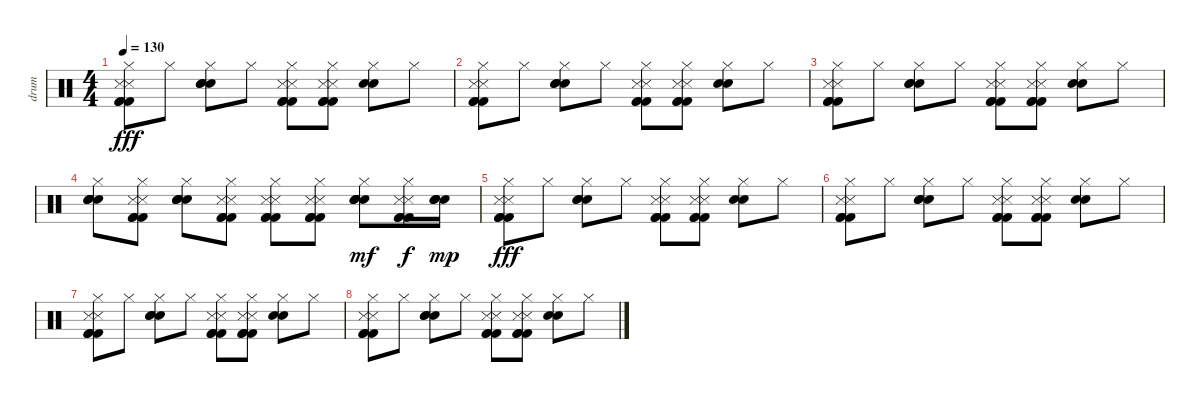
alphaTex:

\track ("drum" "drum") {instrument percussion}
\staff {score}
\articulation defaults
\ts (4 4)
\tempo 130
\clef neutral
\ks c
("Metronome (hit)" "Metronome (hit)" "Kick (hit) 2" "Kick (hit) 2" "Kick (hit) 2" "Hi-Hat (closed)").8{dy fff} "Hi-Hat (closed)".8 ("Electric Snare (hit)" "Electric Snare (hit)" "Electric Snare (hit)" "Hi-Hat (closed)").8 "Hi-Hat (closed)".8 ("Metronome (hit)" "Metronome (hit)" "Kick (hit) 2" "Kick (hit) 2" "Kick (hit) 2" "Hi-Hat (closed)").8 ("Metronome (hit)" "Metronome (hit)" "Kick (hit) 2" "Kick (hit) 2" "Kick (hit) 2" "Hi-Hat (closed)").8 ("Electric Snare (hit)" "Electric Snare (hit)" "Hi-Hat (closed)").8 "Hi-Hat (closed)".8 |
("Metronome (hit)" "Metronome (hit)" "Kick (hit) 2" "Kick (hit) 2" "Kick (hit) 2" "Hi-Hat (closed)").8 "Hi-Hat (closed)".8 ("Electric Snare (hit)" "Electric Snare (hit)" "Electric Snare (hit)" "Hi-Hat (closed)").8 "Hi-Hat (closed)".8 ("Metronome (hit)" "Metronome (hit)" "Kick (hit) 2" "Kick (hit) 2" "Kick (hit) 2" "Hi-Hat (closed)").8 ("Metronome (hit)" "Metronome (hit)" "Kick (hit) 2" "Kick (hit) 2" "Kick (hit) 2" "Hi-Hat (closed)").8 ("Electric Snare (hit)" "Electric Snare (hit)" "Hi-Hat (closed)").8 "Hi-Hat (closed)".8 |
("Metronome (hit)" "Metronome (hit)" "Kick (hit) 2" "Kick (hit) 2" "Kick (hit) 2" "Hi-Hat (closed)").8 "Hi-Hat (closed)".8 ("Electric Snare (hit)" "Electric Snare (hit)" "Electric Snare (hit)" "Hi-Hat (closed)").8 "Hi-Hat (closed)".8 ("Metronome (hit)" "Metronome (hit)" "Kick (hit) 2" "Kick (hit) 2" "Kick (hit) 2" "Hi-Hat (closed)").8 ("Metronome (hit)" "Metronome (hit)" "Kick (hit) 2" "Kick (hit) 2" "Kick (hit) 2" "Hi-Hat (closed)").8 ("Electric Snare (hit)" "Electric Snare (hit)" "Hi-Hat (closed)").8 "Hi-Hat (closed)".8 |
("Hand Clap (hit)" "Snare (hit) 2" "Snare (hit) 2" "Snare (hit) 2" "Hi-Hat (closed)").8 ("Metronome (hit)" "Metronome (hit)" "Kick (hit) 2" "Kick (hit) 2" "Kick (hit) 2" "Hi-Hat (closed)").8{txt ""} ("Hand Clap (hit)" "Snare (hit) 2" "Snare (hit) 2" "Snare (hit) 2" "Hi-Hat (closed)").8 ("Metronome (hit)" "Metronome (hit)" "Kick (hit) 2" "Kick (hit) 2" "Kick (hit) 2" "Hi-Hat (closed)").8 ("Metronome (hit)" "Metronome (hit)" "Kick (hit) 2" "Kick (hit) 2" "Kick (hit) 2" "Hi-Hat (closed)").8 ("Metronome (hit)" "Metronome (hit)" "Kick (hit) 2" "Kick (hit) 2" "Kick (hit) 2" "Hi-Hat (closed)").8 ("Hand Clap (hit)" "Snare (hit) 2" "Snare (hit) 2" "Snare (hit) 2" "Hi-Hat (closed)").8{dy mf} ("Metronome (hit)" "Metronome (hit)" "Kick (hit) 2" "Kick (hit) 2" "Kick (hit) 2" "Hi-Hat (closed)").16{dy f} ("Hand Clap (hit)" "Snare (hit) 2" "Snare (hit) 2" "Snare (hit) 2").16{dy mp} |
("Metronome (hit)" "Metronome (hit)" "Kick (hit) 2" "Kick (hit) 2" "Kick (hit) 2" "Hi-Hat (closed)").8{dy fff} "Hi-Hat (closed)".8 ("Electric Snare (hit)" "Electric Snare (hit)" "Electric Snare (hit)" "Hi-Hat (closed)").8 "Hi-Hat (closed)".8 ("Metronome (hit)" "Metronome (hit)" "Kick (hit) 2" "Kick (hit) 2" "Kick (hit) 2" "Hi-Hat (closed)").8 ("Metronome (hit)" "Metronome (hit)" "Kick (hit) 2" "Kick (hit) 2" "Kick (hit) 2" "Hi-Hat (closed)").8 ("Electric Snare (hit)" "Electric Snare (hit)" "Hi-Hat (closed)").8 "Hi-Hat (closed)".8 |
("Metronome (hit)" "Metronome (hit)" "Kick (hit) 2" "Kick (hit) 2" "Kick (hit) 2" "Hi-Hat (closed)").8 "Hi-Hat (closed)".8 ("Electric Snare (hit)" "Electric Snare (hit)" "Electric Snare (hit)" "Hi-Hat (closed)").8 "Hi-Hat (closed)".8 ("Metronome (hit)" "Metronome (hit)" "Kick (hit) 2" "Kick (hit) 2" "Kick (hit) 2" "Hi-Hat (closed)").8 ("Metronome (hit)" "Metronome (hit)" "Kick (hit) 2" "Kick (hit) 2" "Kick (hit) 2" "Hi-Hat (closed)").8 ("Electric Snare (hit)" "Electric Snare (hit)" "Hi-Hat (closed)").8 "Hi-Hat (closed)".8 |
("Metronome (hit)" "Metronome (hit)" "Kick (hit) 2" "Kick (hit) 2" "Kick (hit) 2" "Hi-Hat (closed)").8 "Hi-Hat (closed)".8 ("Electric Snare (hit)" "Electric Snare (hit)" "Electric Snare (hit)" "Hi-Hat (closed)").8 "Hi-Hat (closed)".8 ("Metronome (hit)" "Metronome (hit)" "Kick (hit) 2" "Kick (hit) 2" "Kick (hit) 2" "Hi-Hat (closed)").8 ("Metronome (hit)" "Metronome (hit)" "Kick (hit) 2" "Kick (hit) 2" "Kick (hit) 2" "Hi-Hat (closed)").8 ("Electric Snare (hit)" "Electric Snare (hit)" "Hi-Hat (closed)").8 "Hi-Hat (closed)".8 |
("Metronome (hit)" "Metronome (hit)" "Kick (hit) 2" "Kick (hit) 2" "Kick (hit) 2" "Hi-Hat (closed)").8 "Hi-Hat (closed)".8 ("Electric Snare (hit)" "Electric Snare (hit)" "Electric Snare (hit)" "Hi-Hat (closed)").8 "Hi-Hat (closed)".8 ("Metronome (hit)" "Metronome (hit)" "Kick (hit) 2" "Kick (hit) 2" "Kick (hit) 2" "Hi-Hat (closed)").8 ("Metronome (hit)" "Metronome (hit)" "Kick (hit) 2" "Kick (hit) 2" "Kick (hit) 2" "Hi-Hat (closed)").8 ("Electric Snare (hit)" "Electric Snare (hit)" "Hi-Hat (closed)").8 "Hi-Hat (closed)".8
